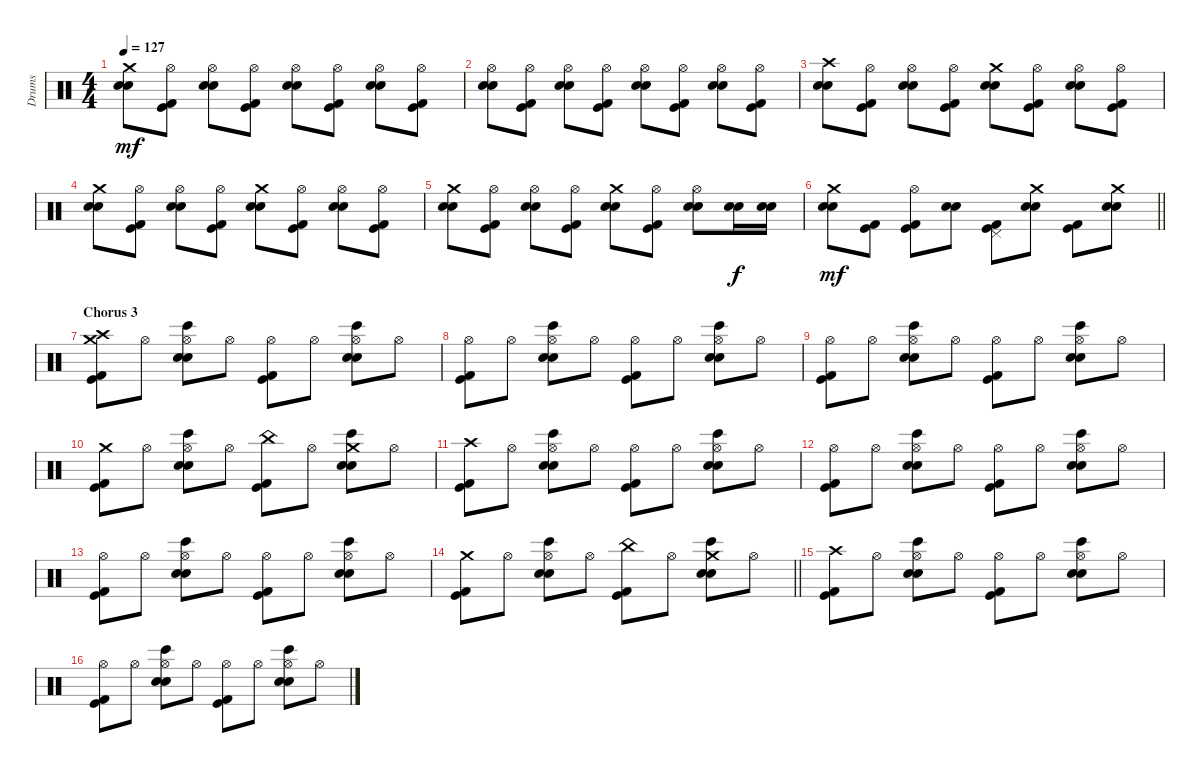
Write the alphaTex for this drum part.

\track ("Drums" "Drums") {instrument percussion}
\staff {score}
\articulation defaults
\ts (4 4)
\tempo 127
\clef neutral
\ks c
("Crash medium (hit)" "Snare (hit) 2" "Electric Snare (hit)").8{dy mf} ("Hi-Hat (open)" "Kick (hit) 2" "Kick (hit)").8 ("Hi-Hat (open)" "Snare (hit) 2" "Electric Snare (hit)").8 ("Hi-Hat (open)" "Kick (hit) 2" "Kick (hit)").8 ("Hi-Hat (open)" "Snare (hit) 2" "Electric Snare (hit)").8 ("Hi-Hat (open)" "Kick (hit) 2" "Kick (hit)").8 ("Hi-Hat (open)" "Snare (hit) 2" "Electric Snare (hit)").8 ("Hi-Hat (open)" "Kick (hit) 2" "Kick (hit)").8 |
("Hi-Hat (open)" "Snare (hit) 2" "Electric Snare (hit)").8 ("Hi-Hat (open)" "Kick (hit) 2" "Kick (hit)").8 ("Hi-Hat (open)" "Snare (hit) 2" "Electric Snare (hit)").8 ("Hi-Hat (open)" "Kick (hit) 2" "Kick (hit)").8 ("Hi-Hat (open)" "Snare (hit) 2" "Electric Snare (hit)").8 ("Hi-Hat (open)" "Kick (hit) 2" "Kick (hit)").8 ("Hi-Hat (open)" "Snare (hit) 2" "Electric Snare (hit)").8 ("Hi-Hat (open)" "Kick (hit) 2" "Kick (hit)").8 |
("Crash high (hit)" "Snare (hit) 2" "Electric Snare (hit)").8 ("Hi-Hat (open)" "Kick (hit) 2" "Kick (hit)").8 ("Hi-Hat (open)" "Snare (hit) 2" "Electric Snare (hit)").8 ("Hi-Hat (open)" "Kick (hit) 2" "Kick (hit)").8 ("Crash medium (hit)" "Snare (hit) 2" "Electric Snare (hit)").8 ("Hi-Hat (open)" "Kick (hit) 2" "Kick (hit)").8 ("Hi-Hat (open)" "Snare (hit) 2" "Electric Snare (hit)").8 ("Hi-Hat (open)" "Kick (hit) 2" "Kick (hit)").8 |
("Crash medium (hit)" "Snare (hit) 2" "Electric Snare (hit)").8 ("Hi-Hat (open)" "Kick (hit) 2" "Kick (hit)").8 ("Hi-Hat (open)" "Snare (hit) 2" "Electric Snare (hit)").8 ("Hi-Hat (open)" "Kick (hit) 2" "Kick (hit)").8 ("Crash medium (hit)" "Snare (hit) 2" "Electric Snare (hit)").8 ("Hi-Hat (open)" "Kick (hit) 2" "Kick (hit)").8 ("Hi-Hat (open)" "Snare (hit) 2" "Electric Snare (hit)").8 ("Hi-Hat (open)" "Kick (hit) 2" "Kick (hit)").8 |
("Crash medium (hit)" "Snare (hit) 2" "Electric Snare (hit)").8 ("Hi-Hat (open)" "Kick (hit) 2" "Kick (hit)").8 ("Hi-Hat (open)" "Snare (hit) 2" "Electric Snare (hit)").8 ("Hi-Hat (open)" "Kick (hit) 2" "Kick (hit)").8 ("Crash medium (hit)" "Snare (hit) 2" "Electric Snare (hit)").8 ("Hi-Hat (open)" "Kick (hit) 2" "Kick (hit)").8 ("Hi-Hat (open)" "Snare (hit) 2" "Electric Snare (hit)").8 ("Snare (hit) 2" "Electric Snare (hit)").16{dy f} ("Snare (hit) 2" "Electric Snare (hit)").16 |
\barLineRight lightlight
("Crash medium (hit)" "Snare (hit) 2" "Electric Snare (hit)").8{dy mf} ("Kick (hit) 2" "Kick (hit)").8 ("Hi-Hat (open)" "Kick (hit) 2" "Kick (hit)").8 ("Snare (hit) 2" "Electric Snare (hit)").8 ("Pedal Hi-Hat (hit)" "Kick (hit) 2" "Kick (hit)").8 ("Crash medium (hit)" "Snare (hit) 2" "Electric Snare (hit)").8 ("Kick (hit) 2" "Kick (hit)").8 ("Crash medium (hit)" "Snare (hit) 2" "Electric Snare (hit)").8 |
\section ("" "Chorus 3")
("Crash high (hit)" "Crash medium (hit)" "Kick (hit) 2" "Kick (hit)").8 "Hi-Hat (open)".8 ("Hi-Hat (open)" "Bongo High (hit)" "Snare (hit) 2" "Electric Snare (hit)").8 "Hi-Hat (open)".8 ("Hi-Hat (open)" "Kick (hit) 2" "Kick (hit)").8 "Hi-Hat (open)".8 ("Hi-Hat (open)" "Bongo High (hit)" "Snare (hit) 2" "Electric Snare (hit)").8 "Hi-Hat (open)".8 |
("Hi-Hat (open)" "Kick (hit) 2" "Kick (hit)").8 "Hi-Hat (open)".8 ("Hi-Hat (open)" "Bongo High (hit)" "Snare (hit) 2" "Electric Snare (hit)").8 "Hi-Hat (open)".8 ("Hi-Hat (open)" "Kick (hit) 2" "Kick (hit)").8 "Hi-Hat (open)".8 ("Hi-Hat (open)" "Bongo High (hit)" "Snare (hit) 2" "Electric Snare (hit)").8 "Hi-Hat (open)".8 |
("Hi-Hat (open)" "Kick (hit) 2" "Kick (hit)").8 "Hi-Hat (open)".8 ("Hi-Hat (open)" "Bongo High (hit)" "Snare (hit) 2" "Electric Snare (hit)").8 "Hi-Hat (open)".8 ("Hi-Hat (open)" "Kick (hit) 2" "Kick (hit)").8 "Hi-Hat (open)".8 ("Hi-Hat (open)" "Bongo High (hit)" "Snare (hit) 2" "Electric Snare (hit)").8 "Hi-Hat (open)".8 |
("Crash medium (hit)" "Kick (hit) 2" "Kick (hit)").8 "Hi-Hat (open)".8 ("Hi-Hat (open)" "Bongo High (hit)" "Snare (hit) 2" "Electric Snare (hit)").8 "Hi-Hat (open)".8 ("China (hit)" "Kick (hit) 2" "Kick (hit)").8 "Hi-Hat (open)".8 ("Crash medium (hit)" "Bongo High (hit)" "Snare (hit) 2" "Electric Snare (hit)").8 "Hi-Hat (open)".8 |
("Crash high (hit)" "Kick (hit) 2" "Kick (hit)").8 "Hi-Hat (open)".8 ("Hi-Hat (open)" "Bongo High (hit)" "Snare (hit) 2" "Electric Snare (hit)").8 "Hi-Hat (open)".8 ("Hi-Hat (open)" "Kick (hit) 2" "Kick (hit)").8 "Hi-Hat (open)".8 ("Hi-Hat (open)" "Bongo High (hit)" "Snare (hit) 2" "Electric Snare (hit)").8 "Hi-Hat (open)".8 |
("Hi-Hat (open)" "Kick (hit) 2" "Kick (hit)").8 "Hi-Hat (open)".8 ("Hi-Hat (open)" "Bongo High (hit)" "Snare (hit) 2" "Electric Snare (hit)").8 "Hi-Hat (open)".8 ("Hi-Hat (open)" "Kick (hit) 2" "Kick (hit)").8 "Hi-Hat (open)".8 ("Hi-Hat (open)" "Bongo High (hit)" "Snare (hit) 2" "Electric Snare (hit)").8 "Hi-Hat (open)".8 |
("Hi-Hat (open)" "Kick (hit) 2" "Kick (hit)").8 "Hi-Hat (open)".8 ("Hi-Hat (open)" "Bongo High (hit)" "Snare (hit) 2" "Electric Snare (hit)").8 "Hi-Hat (open)".8 ("Hi-Hat (open)" "Kick (hit) 2" "Kick (hit)").8 "Hi-Hat (open)".8 ("Hi-Hat (open)" "Bongo High (hit)" "Snare (hit) 2" "Electric Snare (hit)").8 "Hi-Hat (open)".8 |
\barLineRight lightlight
("Crash medium (hit)" "Kick (hit) 2" "Kick (hit)").8 "Hi-Hat (open)".8 ("Hi-Hat (open)" "Bongo High (hit)" "Snare (hit) 2" "Electric Snare (hit)").8 "Hi-Hat (open)".8 ("China (hit)" "Kick (hit) 2" "Kick (hit)").8 "Hi-Hat (open)".8 ("Crash medium (hit)" "Bongo High (hit)" "Snare (hit) 2" "Electric Snare (hit)").8 "Hi-Hat (open)".8 |
("Crash high (hit)" "Kick (hit) 2" "Kick (hit)").8 "Hi-Hat (open)".8 ("Hi-Hat (open)" "Bongo High (hit)" "Snare (hit) 2" "Electric Snare (hit)").8 "Hi-Hat (open)".8 ("Hi-Hat (open)" "Kick (hit) 2" "Kick (hit)").8 "Hi-Hat (open)".8 ("Hi-Hat (open)" "Bongo High (hit)" "Snare (hit) 2" "Electric Snare (hit)").8 "Hi-Hat (open)".8 |
("Hi-Hat (open)" "Kick (hit) 2" "Kick (hit)").8 "Hi-Hat (open)".8 ("Hi-Hat (open)" "Bongo High (hit)" "Snare (hit) 2" "Electric Snare (hit)").8 "Hi-Hat (open)".8 ("Hi-Hat (open)" "Kick (hit) 2" "Kick (hit)").8 "Hi-Hat (open)".8 ("Hi-Hat (open)" "Bongo High (hit)" "Snare (hit) 2" "Electric Snare (hit)").8 "Hi-Hat (open)".8
